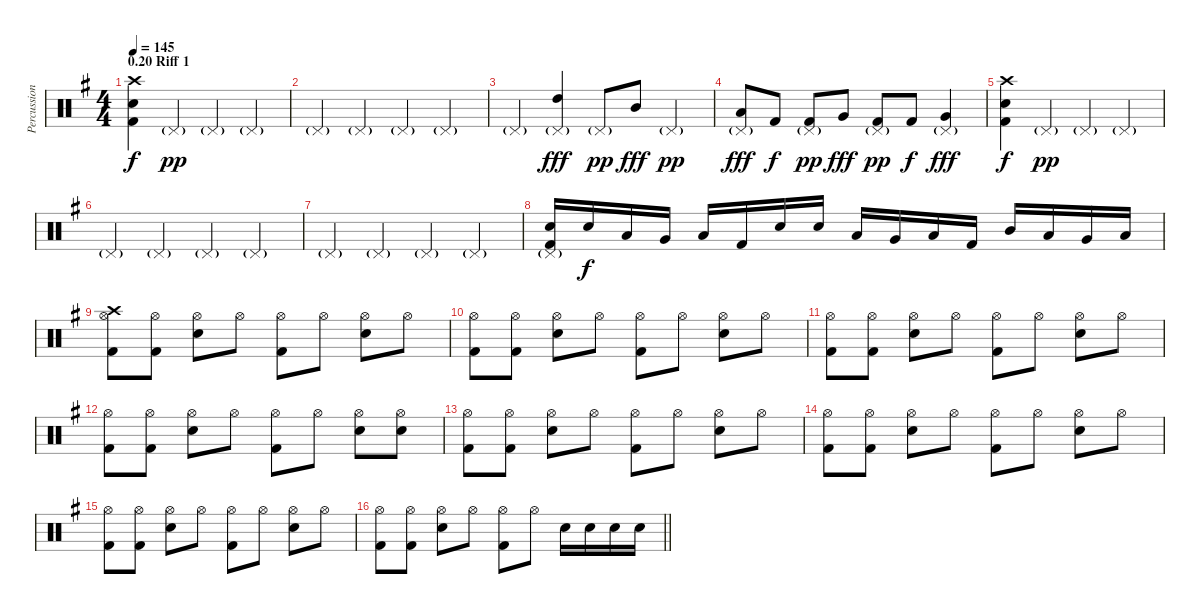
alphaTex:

\track ("Percussion" "Percussion") {instrument percussion}
\staff {score}
\articulation defaults
\ts (4 4)
\section ("" "0.20 Riff 1")
\tempo 145
\clef neutral
\ks eminor
("Crash high (hit)" "Electric Snare (hit)" "Kick (hit) 2").4{dy f} "Pedal Hi-Hat (hit)"{g}.4{dy pp} "Pedal Hi-Hat (hit)"{g}.4 "Pedal Hi-Hat (hit)"{g}.4 |
"Pedal Hi-Hat (hit)"{g}.4 "Pedal Hi-Hat (hit)"{g}.4 "Pedal Hi-Hat (hit)"{g}.4 "Pedal Hi-Hat (hit)"{g}.4 |
"Pedal Hi-Hat (hit)"{g}.4 ("Pedal Hi-Hat (hit)"{g} "High Tom (hit)").4{dy fff} "Pedal Hi-Hat (hit)"{g}.8{dy pp} "Mid Tom (hit)".8{dy fff} "Pedal Hi-Hat (hit)"{g}.4{dy pp} |
("Pedal Hi-Hat (hit)"{g} "Low Tom (hit)").8{dy fff} "Kick (hit) 2".8{dy f} ("Pedal Hi-Hat (hit)"{g} "Kick (hit) 2").8{dy pp} "Very Low Tom (hit)".8{dy fff} ("Pedal Hi-Hat (hit)"{g} "Kick (hit) 2").8{dy pp} "Kick (hit) 2".8{dy f} ("Pedal Hi-Hat (hit)"{g} "Very Low Tom (hit)").4{dy fff} |
("Crash high (hit)" "Electric Snare (hit)" "Kick (hit) 2").4{dy f} "Pedal Hi-Hat (hit)"{g}.4{dy pp} "Pedal Hi-Hat (hit)"{g}.4 "Pedal Hi-Hat (hit)"{g}.4 |
"Pedal Hi-Hat (hit)"{g}.4 "Pedal Hi-Hat (hit)"{g}.4 "Pedal Hi-Hat (hit)"{g}.4 "Pedal Hi-Hat (hit)"{g}.4 |
"Pedal Hi-Hat (hit)"{g}.4 "Pedal Hi-Hat (hit)"{g}.4 "Pedal Hi-Hat (hit)"{g}.4 "Pedal Hi-Hat (hit)"{g}.4 |
("Pedal Hi-Hat (hit)"{g} "Electric Snare (hit)" "Kick (hit) 2").16 "Electric Snare (hit)".16{dy f} "Low Tom (hit)".16 "Very Low Tom (hit)".16 "Low Floor Tom (hit)".16 "Kick (hit) 2".16 "Electric Snare (hit)".16 "Electric Snare (hit)".16 "Low Tom (hit)".16 "Very Low Tom (hit)".16 "Low Floor Tom (hit)".16 "Kick (hit) 2".16 "Mid Tom (hit)".16 "Low Tom (hit)".16 "Very Low Tom (hit)".16 "Low Floor Tom (hit)".16 |
("Crash high (hit)" "Hi-Hat (open)" "Kick (hit) 2").8 ("Hi-Hat (open)" "Kick (hit) 2").8 ("Hi-Hat (open)" "Electric Snare (hit)").8 "Hi-Hat (open)".8 ("Hi-Hat (open)" "Kick (hit) 2").8 "Hi-Hat (open)".8 ("Hi-Hat (open)" "Electric Snare (hit)").8 "Hi-Hat (open)".8 |
("Hi-Hat (open)" "Kick (hit) 2").8 ("Hi-Hat (open)" "Kick (hit) 2").8 ("Hi-Hat (open)" "Electric Snare (hit)").8 "Hi-Hat (open)".8 ("Hi-Hat (open)" "Kick (hit) 2").8 "Hi-Hat (open)".8 ("Hi-Hat (open)" "Electric Snare (hit)").8 "Hi-Hat (open)".8 |
("Hi-Hat (open)" "Kick (hit) 2").8 ("Hi-Hat (open)" "Kick (hit) 2").8 ("Hi-Hat (open)" "Electric Snare (hit)").8 "Hi-Hat (open)".8 ("Hi-Hat (open)" "Kick (hit) 2").8 "Hi-Hat (open)".8 ("Hi-Hat (open)" "Electric Snare (hit)").8 "Hi-Hat (open)".8 |
("Hi-Hat (open)" "Kick (hit) 2").8 ("Hi-Hat (open)" "Kick (hit) 2").8 ("Hi-Hat (open)" "Electric Snare (hit)").8 "Hi-Hat (open)".8 ("Hi-Hat (open)" "Kick (hit) 2").8 "Hi-Hat (open)".8 ("Hi-Hat (open)" "Electric Snare (hit)").8 ("Hi-Hat (open)" "Electric Snare (hit)").8 |
("Hi-Hat (open)" "Kick (hit) 2").8 ("Hi-Hat (open)" "Kick (hit) 2").8 ("Hi-Hat (open)" "Electric Snare (hit)").8 "Hi-Hat (open)".8 ("Hi-Hat (open)" "Kick (hit) 2").8 "Hi-Hat (open)".8 ("Hi-Hat (open)" "Electric Snare (hit)").8 "Hi-Hat (open)".8 |
("Hi-Hat (open)" "Kick (hit) 2").8 ("Hi-Hat (open)" "Kick (hit) 2").8 ("Hi-Hat (open)" "Electric Snare (hit)").8 "Hi-Hat (open)".8 ("Hi-Hat (open)" "Kick (hit) 2").8 "Hi-Hat (open)".8 ("Hi-Hat (open)" "Electric Snare (hit)").8 "Hi-Hat (open)".8 |
("Hi-Hat (open)" "Kick (hit) 2").8 ("Hi-Hat (open)" "Kick (hit) 2").8 ("Hi-Hat (open)" "Electric Snare (hit)").8 "Hi-Hat (open)".8 ("Hi-Hat (open)" "Kick (hit) 2").8 "Hi-Hat (open)".8 ("Hi-Hat (open)" "Electric Snare (hit)").8 "Hi-Hat (open)".8 |
\barLineRight lightlight
("Hi-Hat (open)" "Kick (hit) 2").8 ("Hi-Hat (open)" "Kick (hit) 2").8 ("Hi-Hat (open)" "Electric Snare (hit)").8 "Hi-Hat (open)".8 ("Hi-Hat (open)" "Kick (hit) 2").8 "Hi-Hat (open)".8 "Electric Snare (hit)".16 "Electric Snare (hit)".16 "Electric Snare (hit)".16 "Electric Snare (hit)".16
